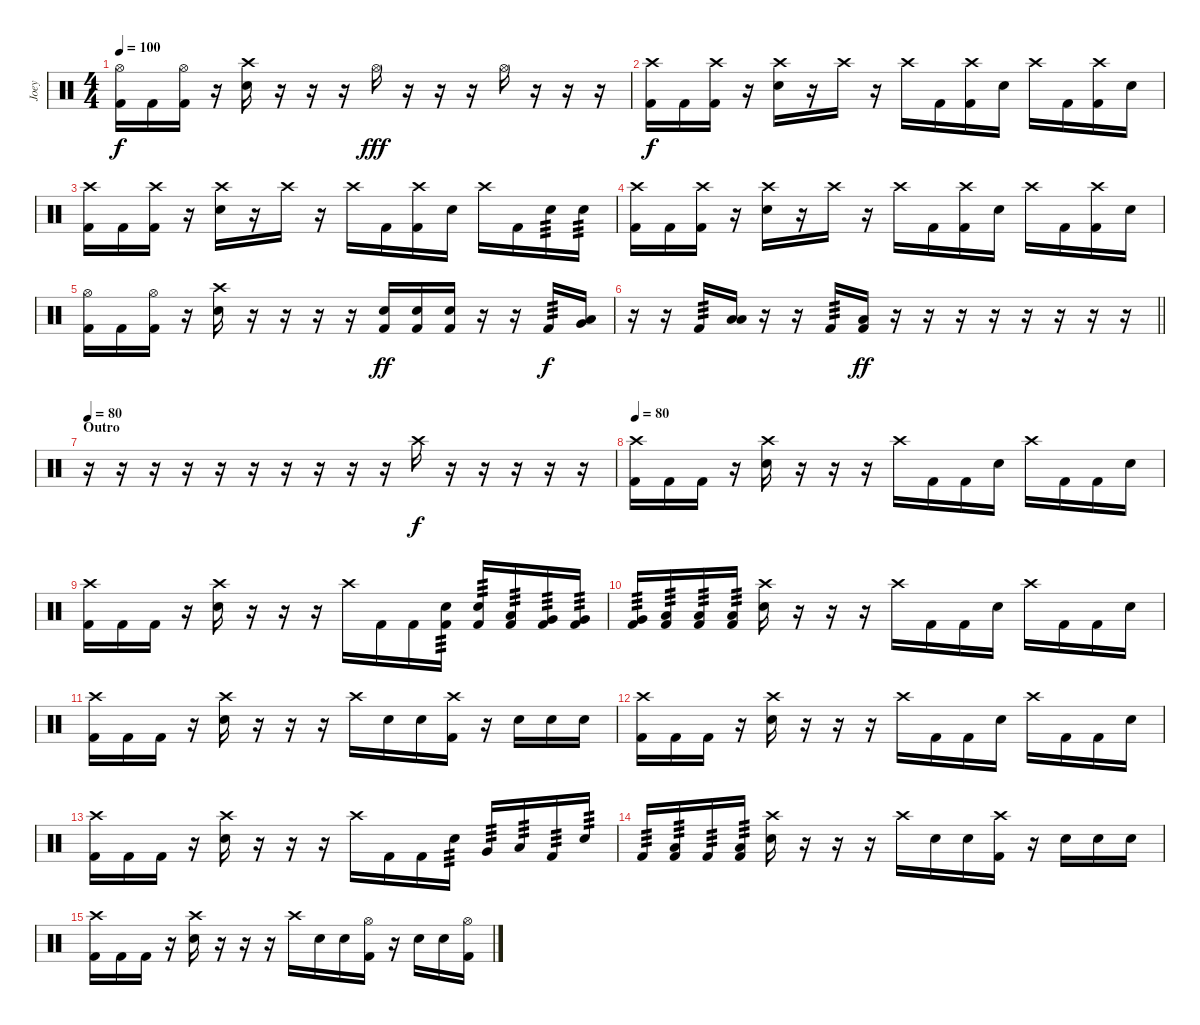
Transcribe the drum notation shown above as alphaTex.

\track ("Joey" "Joey") {instrument percussion}
\staff {score}
\articulation defaults
\ts (4 4)
\tempo 100
\clef neutral
\ks c
("Hi-Hat (open)" "Kick (hit) 2").16{dy f} "Kick (hit) 2".16 ("Hi-Hat (open)" "Kick (hit) 2").16 r.16 ("Crash high (hit)" "Electric Snare (hit)").16 r.16 r.16 r.16 "Hi-Hat (open)".16{dy fff} r.16 r.16 r.16 "Hi-Hat (open)".16 r.16 r.16 r.16 |
("Crash high (hit)" "Kick (hit) 2").16{dy f} "Kick (hit) 2".16 ("Crash high (hit)" "Kick (hit) 2").16 r.16 ("Crash high (hit)" "Electric Snare (hit)").16 r.16 "Crash high (hit)".16 r.16 "Crash high (hit)".16 "Kick (hit) 2".16 ("Crash high (hit)" "Kick (hit) 2").16 "Electric Snare (hit)".16 "Crash high (hit)".16 "Kick (hit) 2".16 ("Crash high (hit)" "Kick (hit) 2").16 "Electric Snare (hit)".16 |
("Crash high (hit)" "Kick (hit) 2").16 "Kick (hit) 2".16 ("Crash high (hit)" "Kick (hit) 2").16 r.16 ("Crash high (hit)" "Electric Snare (hit)").16 r.16 "Crash high (hit)".16 r.16 "Crash high (hit)".16 "Kick (hit) 2".16 ("Crash high (hit)" "Kick (hit) 2").16 "Electric Snare (hit)".16 "Crash high (hit)".16 "Kick (hit) 2".16 "Electric Snare (hit)".16{tp 3} "Electric Snare (hit)".16{tp 3} |
("Crash high (hit)" "Kick (hit) 2").16 "Kick (hit) 2".16 ("Crash high (hit)" "Kick (hit) 2").16 r.16 ("Crash high (hit)" "Electric Snare (hit)").16 r.16 "Crash high (hit)".16 r.16 "Crash high (hit)".16 "Kick (hit) 2".16 ("Crash high (hit)" "Kick (hit) 2").16 "Electric Snare (hit)".16 "Crash high (hit)".16 "Kick (hit) 2".16 ("Crash high (hit)" "Kick (hit) 2").16 "Electric Snare (hit)".16 |
("Hi-Hat (open)" "Kick (hit) 2").16 "Kick (hit) 2".16 ("Hi-Hat (open)" "Kick (hit) 2").16 r.16 ("Crash high (hit)" "Electric Snare (hit)").16 r.16 r.16 r.16 r.16 ("Kick (hit) 2" "Electric Snare (hit)").16{dy ff} ("Kick (hit) 2" "Electric Snare (hit)").16 ("Kick (hit) 2" "Electric Snare (hit)").16 r.16 r.16 "Kick (hit) 2".16{tp 3 dy f} ("Very Low Tom (hit)" "Low Floor Tom (hit)").16 |
\barLineRight lightlight
r.16 r.16 "Kick (hit) 2".16{tp 3} ("Low Floor Tom (hit)" "Low Floor Tom (hit)").16 r.16 r.16 "Kick (hit) 2".16{tp 3} ("Kick (hit) 2" "Low Floor Tom (hit)").16{dy ff} r.16 r.16 r.16 r.16 r.16 r.16 r.16 r.16 |
\section ("" "Outro")
\tempo 80
r.16 r.16 r.16 r.16 r.16 r.16 r.16 r.16 r.16 r.16 "Crash high (hit)".16{dy f} r.16 r.16 r.16 r.16 r.16 |
\tempo 80
("Crash high (hit)" "Kick (hit) 2").16 "Kick (hit) 2".16 "Kick (hit) 2".16 r.16 ("Crash high (hit)" "Electric Snare (hit)").16 r.16 r.16 r.16 "Crash high (hit)".16 "Kick (hit) 2".16 "Kick (hit) 2".16 "Electric Snare (hit)".16 "Crash high (hit)".16 "Kick (hit) 2".16 "Kick (hit) 2".16 "Electric Snare (hit)".16 |
("Crash high (hit)" "Kick (hit) 2").16 "Kick (hit) 2".16 "Kick (hit) 2".16 r.16 ("Crash high (hit)" "Electric Snare (hit)").16 r.16 r.16 r.16 "Crash high (hit)".16 "Kick (hit) 2".16 "Kick (hit) 2".16 ("Electric Snare (hit)" "Kick (hit) 2").16{tp 3} ("Electric Snare (hit)" "Kick (hit) 2").16{tp 3} ("Low Tom (hit)" "Kick (hit) 2").16{tp 3} ("Very Low Tom (hit)" "Kick (hit) 2").16{tp 3} ("Very Low Tom (hit)" "Kick (hit) 2").16{tp 3} |
("Very Low Tom (hit)" "Kick (hit) 2").16{tp 3} ("Low Floor Tom (hit)" "Kick (hit) 2").16{tp 3} ("Low Floor Tom (hit)" "Kick (hit) 2").16{tp 3} ("Low Floor Tom (hit)" "Kick (hit) 2").16{tp 3} ("Crash high (hit)" "Electric Snare (hit)").16 r.16 r.16 r.16 "Crash high (hit)".16 "Kick (hit) 2".16 "Kick (hit) 2".16 "Electric Snare (hit)".16 "Crash high (hit)".16 "Kick (hit) 2".16 "Kick (hit) 2".16 "Electric Snare (hit)".16 |
("Crash high (hit)" "Kick (hit) 2").16 "Kick (hit) 2".16 "Kick (hit) 2".16 r.16 ("Crash high (hit)" "Electric Snare (hit)").16 r.16 r.16 r.16 "Crash high (hit)".16 "Electric Snare (hit)".16 "Electric Snare (hit)".16 ("Crash high (hit)" "Kick (hit) 2").16 r.16 "Electric Snare (hit)".16 "Electric Snare (hit)".16 "Electric Snare (hit)".16 |
("Crash high (hit)" "Kick (hit) 2").16 "Kick (hit) 2".16 "Kick (hit) 2".16 r.16 ("Crash high (hit)" "Electric Snare (hit)").16 r.16 r.16 r.16 "Crash high (hit)".16 "Kick (hit) 2".16 "Kick (hit) 2".16 "Electric Snare (hit)".16 "Crash high (hit)".16 "Kick (hit) 2".16 "Kick (hit) 2".16 "Electric Snare (hit)".16 |
("Crash high (hit)" "Kick (hit) 2").16 "Kick (hit) 2".16 "Kick (hit) 2".16 r.16 ("Crash high (hit)" "Electric Snare (hit)").16 r.16 r.16 r.16 "Crash high (hit)".16 "Kick (hit) 2".16 "Kick (hit) 2".16 "Electric Snare (hit)".16{tp 3} "Very Low Tom (hit)".16{tp 3} "Low Floor Tom (hit)".16{tp 3} "Kick (hit) 2".16{tp 3} "Electric Snare (hit)".16{tp 3} |
"Kick (hit) 2".16{tp 3} ("Low Floor Tom (hit)" "Kick (hit) 2").16{tp 3} "Kick (hit) 2".16{tp 3} ("Low Floor Tom (hit)" "Kick (hit) 2").16{tp 3} ("Crash high (hit)" "Electric Snare (hit)").16 r.16 r.16 r.16 "Crash high (hit)".16 "Electric Snare (hit)".16 "Electric Snare (hit)".16 ("Crash high (hit)" "Kick (hit) 2").16 r.16 "Electric Snare (hit)".16 "Electric Snare (hit)".16 "Electric Snare (hit)".16 |
("Crash high (hit)" "Kick (hit) 2").16 "Kick (hit) 2".16 "Kick (hit) 2".16 r.16 ("Crash high (hit)" "Electric Snare (hit)").16 r.16 r.16 r.16 "Crash high (hit)".16 "Electric Snare (hit)".16 "Electric Snare (hit)".16 ("Hi-Hat (open)" "Kick (hit) 2").16 r.16 "Electric Snare (hit)".16 "Electric Snare (hit)".16 ("Hi-Hat (open)" "Kick (hit) 2").16
